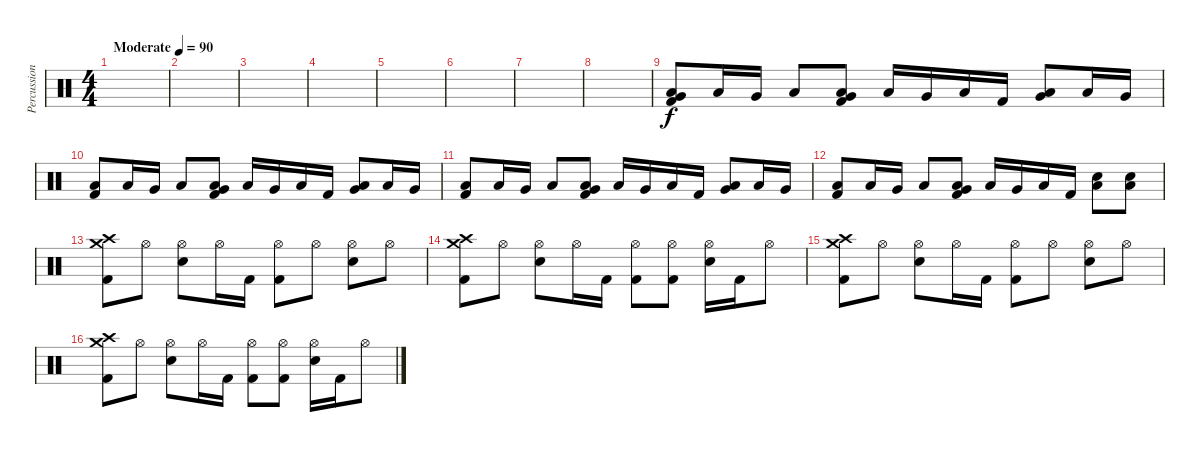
\track ("Percussion" "Percussion") {instrument percussion}
\staff {score}
\articulation defaults
\ts (4 4)
\tempo (90 "Moderate")
\clef neutral
\ks c
|
|
|
|
|
|
|
|
("Very Low Tom (hit)" "Low Floor Tom (hit)" "Kick (hit) 2").8 "Low Floor Tom (hit)".16 "Very Low Tom (hit)".16 "Low Floor Tom (hit)".8 ("Very Low Tom (hit)" "Low Floor Tom (hit)" "Kick (hit) 2").8 "Low Floor Tom (hit)".16 "Very Low Tom (hit)".16 "Low Floor Tom (hit)".16 "Kick (hit) 2".16 ("Very Low Tom (hit)" "Low Floor Tom (hit)").8 "Low Floor Tom (hit)".16 "Very Low Tom (hit)".16 |
("Low Floor Tom (hit)" "Kick (hit) 2").8 "Low Floor Tom (hit)".16 "Very Low Tom (hit)".16 "Low Floor Tom (hit)".8 ("Very Low Tom (hit)" "Low Floor Tom (hit)" "Kick (hit) 2").8 "Low Floor Tom (hit)".16 "Very Low Tom (hit)".16 "Low Floor Tom (hit)".16 "Kick (hit) 2".16 ("Very Low Tom (hit)" "Low Floor Tom (hit)").8 "Low Floor Tom (hit)".16 "Very Low Tom (hit)".16 |
("Low Floor Tom (hit)" "Kick (hit) 2").8 "Low Floor Tom (hit)".16 "Very Low Tom (hit)".16 "Low Floor Tom (hit)".8 ("Very Low Tom (hit)" "Low Floor Tom (hit)" "Kick (hit) 2").8 "Low Floor Tom (hit)".16 "Very Low Tom (hit)".16 "Low Floor Tom (hit)".16 "Kick (hit) 2".16 ("Very Low Tom (hit)" "Low Floor Tom (hit)").8 "Low Floor Tom (hit)".16 "Very Low Tom (hit)".16 |
("Low Floor Tom (hit)" "Kick (hit) 2").8 "Low Floor Tom (hit)".16 "Very Low Tom (hit)".16 "Low Floor Tom (hit)".8 ("Very Low Tom (hit)" "Low Floor Tom (hit)" "Kick (hit) 2").8 "Low Floor Tom (hit)".16 "Very Low Tom (hit)".16 "Low Floor Tom (hit)".16 "Kick (hit) 2".16 ("Snare (hit) 2" "Low Floor Tom (hit)").8 ("Snare (hit) 2" "Low Floor Tom (hit)").8 |
("Crash medium (hit)" "Crash high (hit)" "Kick (hit) 2").8 "Hi-Hat (open)".8 ("Hi-Hat (open)" "Snare (hit) 2").8 "Hi-Hat (open)".16 "Kick (hit) 2".16 ("Hi-Hat (open)" "Kick (hit) 2").8 "Hi-Hat (open)".8 ("Hi-Hat (open)" "Snare (hit) 2").8 "Hi-Hat (open)".8 |
("Crash medium (hit)" "Crash high (hit)" "Kick (hit) 2").8 "Hi-Hat (open)".8 ("Hi-Hat (open)" "Snare (hit) 2").8 "Hi-Hat (open)".16 "Kick (hit) 2".16 ("Hi-Hat (open)" "Kick (hit) 2").8 ("Hi-Hat (open)" "Kick (hit) 2").8 ("Hi-Hat (open)" "Snare (hit) 2").16 "Kick (hit) 2".16 "Hi-Hat (open)".8 |
("Crash medium (hit)" "Crash high (hit)" "Kick (hit) 2").8 "Hi-Hat (open)".8 ("Hi-Hat (open)" "Snare (hit) 2").8 "Hi-Hat (open)".16 "Kick (hit) 2".16 ("Hi-Hat (open)" "Kick (hit) 2").8 "Hi-Hat (open)".8 ("Hi-Hat (open)" "Snare (hit) 2").8 "Hi-Hat (open)".8 |
("Crash medium (hit)" "Crash high (hit)" "Kick (hit) 2").8 "Hi-Hat (open)".8 ("Hi-Hat (open)" "Snare (hit) 2").8 "Hi-Hat (open)".16 "Kick (hit) 2".16 ("Hi-Hat (open)" "Kick (hit) 2").8 ("Hi-Hat (open)" "Kick (hit) 2").8 ("Hi-Hat (open)" "Snare (hit) 2").16 "Kick (hit) 2".16 "Hi-Hat (open)".8
